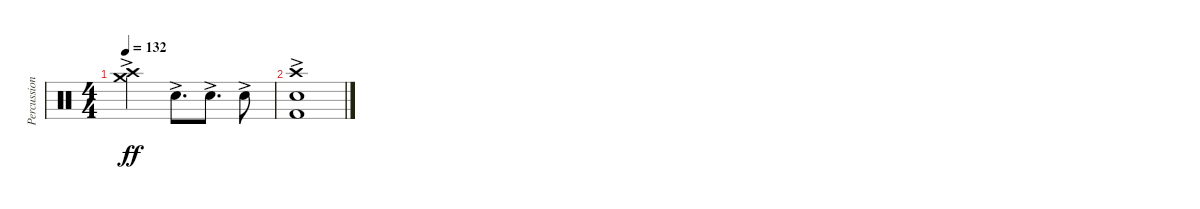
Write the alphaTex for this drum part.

\track ("Percussion" "Percussion") {instrument percussion}
\staff {score}
\articulation defaults
\ts (4 4)
\tempo 132
\clef neutral
\ks c
("Crash medium (hit)"{ac} "Crash high (hit)").2{dy ff} "Electric Snare (hit)"{ac}.8{d} "Electric Snare (hit)"{ac}.8{d} "Electric Snare (hit)"{ac}.8 |
("Crash high (hit)"{ac} "Kick (hit) 2"{ac} "Electric Snare (hit)"{ac}).1
